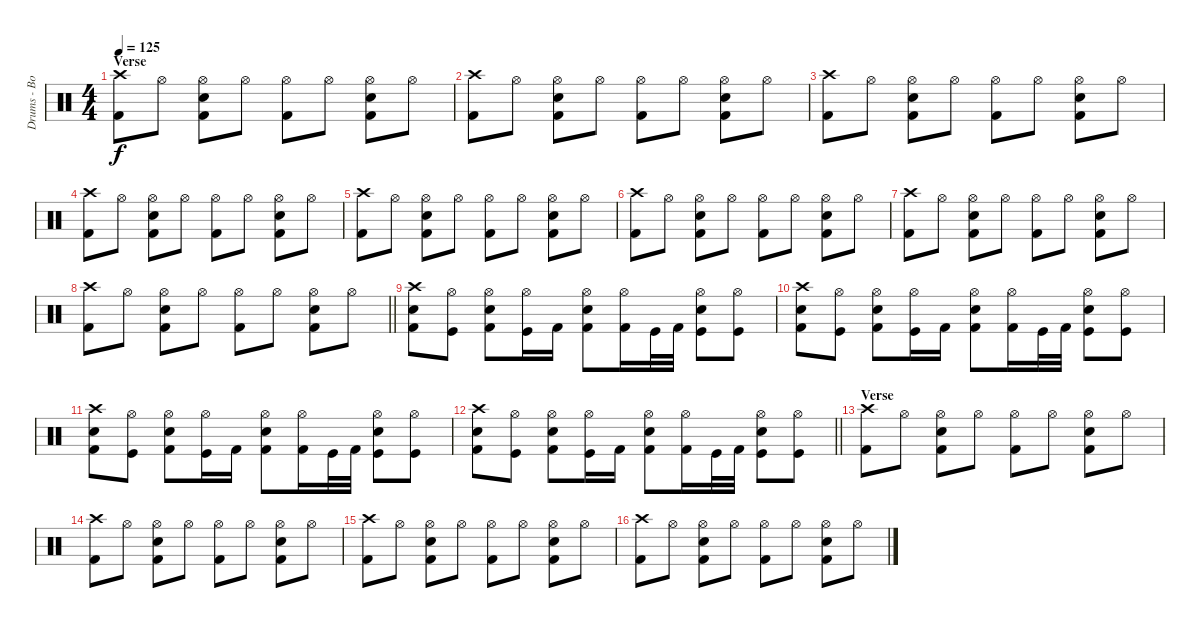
\track ("Drums - Bobby Schottkowski" "Drums - Bo") {instrument percussion}
\staff {score}
\articulation defaults
\ts (4 4)
\section ("" "Verse")
\tempo 125
\clef neutral
\ks c
("Kick (hit) 2" "Crash high (hit)").8{dy f} "Hi-Hat (open)".8 ("Kick (hit) 2" "Snare (hit) 2" "Hi-Hat (open)").8 "Hi-Hat (open)".8 ("Kick (hit) 2" "Hi-Hat (open)").8 "Hi-Hat (open)".8 ("Kick (hit) 2" "Snare (hit) 2" "Hi-Hat (open)").8 "Hi-Hat (open)".8 |
("Kick (hit) 2" "Crash high (hit)").8 "Hi-Hat (open)".8 ("Kick (hit) 2" "Snare (hit) 2" "Hi-Hat (open)").8 "Hi-Hat (open)".8 ("Kick (hit) 2" "Hi-Hat (open)").8 "Hi-Hat (open)".8 ("Kick (hit) 2" "Snare (hit) 2" "Hi-Hat (open)").8 "Hi-Hat (open)".8 |
("Kick (hit) 2" "Crash high (hit)").8 "Hi-Hat (open)".8 ("Kick (hit) 2" "Snare (hit) 2" "Hi-Hat (open)").8 "Hi-Hat (open)".8 ("Kick (hit) 2" "Hi-Hat (open)").8 "Hi-Hat (open)".8 ("Kick (hit) 2" "Snare (hit) 2" "Hi-Hat (open)").8 "Hi-Hat (open)".8 |
("Kick (hit) 2" "Crash high (hit)").8 "Hi-Hat (open)".8 ("Kick (hit) 2" "Snare (hit) 2" "Hi-Hat (open)").8 "Hi-Hat (open)".8 ("Kick (hit) 2" "Hi-Hat (open)").8 "Hi-Hat (open)".8 ("Kick (hit) 2" "Snare (hit) 2" "Hi-Hat (open)").8 "Hi-Hat (open)".8 |
("Kick (hit) 2" "Crash high (hit)").8 "Hi-Hat (open)".8 ("Kick (hit) 2" "Snare (hit) 2" "Hi-Hat (open)").8 "Hi-Hat (open)".8 ("Kick (hit) 2" "Hi-Hat (open)").8 "Hi-Hat (open)".8 ("Kick (hit) 2" "Snare (hit) 2" "Hi-Hat (open)").8 "Hi-Hat (open)".8 |
("Kick (hit) 2" "Crash high (hit)").8 "Hi-Hat (open)".8 ("Kick (hit) 2" "Snare (hit) 2" "Hi-Hat (open)").8 "Hi-Hat (open)".8 ("Kick (hit) 2" "Hi-Hat (open)").8 "Hi-Hat (open)".8 ("Kick (hit) 2" "Snare (hit) 2" "Hi-Hat (open)").8 "Hi-Hat (open)".8 |
("Kick (hit) 2" "Crash high (hit)").8 "Hi-Hat (open)".8 ("Kick (hit) 2" "Snare (hit) 2" "Hi-Hat (open)").8 "Hi-Hat (open)".8 ("Kick (hit) 2" "Hi-Hat (open)").8 "Hi-Hat (open)".8 ("Kick (hit) 2" "Snare (hit) 2" "Hi-Hat (open)").8 "Hi-Hat (open)".8 |
\barLineRight lightlight
("Kick (hit) 2" "Crash high (hit)").8 "Hi-Hat (open)".8 ("Kick (hit) 2" "Snare (hit) 2" "Hi-Hat (open)").8 "Hi-Hat (open)".8 ("Kick (hit) 2" "Hi-Hat (open)").8 "Hi-Hat (open)".8 ("Kick (hit) 2" "Snare (hit) 2" "Hi-Hat (open)").8 "Hi-Hat (open)".8 |
("Kick (hit) 2" "Snare (hit) 2" "Crash high (hit)").8 ("Kick (hit)" "Hi-Hat (open)").8 ("Kick (hit) 2" "Snare (hit) 2" "Hi-Hat (open)").8 ("Kick (hit)" "Hi-Hat (open)").16 "Kick (hit) 2".16 ("Kick (hit) 2" "Snare (hit) 2" "Hi-Hat (open)").8 ("Kick (hit) 2" "Hi-Hat (open)").16 "Kick (hit)".32 "Kick (hit) 2".32 ("Kick (hit)" "Snare (hit) 2" "Hi-Hat (open)").8 ("Kick (hit)" "Hi-Hat (open)").8 |
("Kick (hit) 2" "Snare (hit) 2" "Crash high (hit)").8 ("Kick (hit)" "Hi-Hat (open)").8 ("Kick (hit) 2" "Snare (hit) 2" "Hi-Hat (open)").8 ("Kick (hit)" "Hi-Hat (open)").16 "Kick (hit) 2".16 ("Kick (hit) 2" "Snare (hit) 2" "Hi-Hat (open)").8 ("Kick (hit) 2" "Hi-Hat (open)").16 "Kick (hit)".32 "Kick (hit) 2".32 ("Kick (hit)" "Snare (hit) 2" "Hi-Hat (open)").8 ("Kick (hit)" "Hi-Hat (open)").8 |
("Kick (hit) 2" "Snare (hit) 2" "Crash high (hit)").8 ("Kick (hit)" "Hi-Hat (open)").8 ("Kick (hit) 2" "Snare (hit) 2" "Hi-Hat (open)").8 ("Kick (hit)" "Hi-Hat (open)").16 "Kick (hit) 2".16 ("Kick (hit) 2" "Snare (hit) 2" "Hi-Hat (open)").8 ("Kick (hit) 2" "Hi-Hat (open)").16 "Kick (hit)".32 "Kick (hit) 2".32 ("Kick (hit)" "Snare (hit) 2" "Hi-Hat (open)").8 ("Kick (hit)" "Hi-Hat (open)").8 |
\barLineRight lightlight
("Kick (hit) 2" "Snare (hit) 2" "Crash high (hit)").8 ("Kick (hit)" "Hi-Hat (open)").8 ("Kick (hit) 2" "Snare (hit) 2" "Hi-Hat (open)").8 ("Kick (hit)" "Hi-Hat (open)").16 "Kick (hit) 2".16 ("Kick (hit) 2" "Snare (hit) 2" "Hi-Hat (open)").8 ("Kick (hit) 2" "Hi-Hat (open)").16 "Kick (hit)".32 "Kick (hit) 2".32 ("Kick (hit)" "Snare (hit) 2" "Hi-Hat (open)").8 ("Kick (hit)" "Hi-Hat (open)").8 |
\section ("" "Verse")
("Kick (hit) 2" "Crash high (hit)").8 "Hi-Hat (open)".8 ("Kick (hit) 2" "Snare (hit) 2" "Hi-Hat (open)").8 "Hi-Hat (open)".8 ("Kick (hit) 2" "Hi-Hat (open)").8 "Hi-Hat (open)".8 ("Kick (hit) 2" "Snare (hit) 2" "Hi-Hat (open)").8 "Hi-Hat (open)".8 |
("Kick (hit) 2" "Crash high (hit)").8 "Hi-Hat (open)".8 ("Kick (hit) 2" "Snare (hit) 2" "Hi-Hat (open)").8 "Hi-Hat (open)".8 ("Kick (hit) 2" "Hi-Hat (open)").8 "Hi-Hat (open)".8 ("Kick (hit) 2" "Snare (hit) 2" "Hi-Hat (open)").8 "Hi-Hat (open)".8 |
("Kick (hit) 2" "Crash high (hit)").8 "Hi-Hat (open)".8 ("Kick (hit) 2" "Snare (hit) 2" "Hi-Hat (open)").8 "Hi-Hat (open)".8 ("Kick (hit) 2" "Hi-Hat (open)").8 "Hi-Hat (open)".8 ("Kick (hit) 2" "Snare (hit) 2" "Hi-Hat (open)").8 "Hi-Hat (open)".8 |
("Kick (hit) 2" "Crash high (hit)").8 "Hi-Hat (open)".8 ("Kick (hit) 2" "Snare (hit) 2" "Hi-Hat (open)").8 "Hi-Hat (open)".8 ("Kick (hit) 2" "Hi-Hat (open)").8 "Hi-Hat (open)".8 ("Kick (hit) 2" "Snare (hit) 2" "Hi-Hat (open)").8 "Hi-Hat (open)".8
